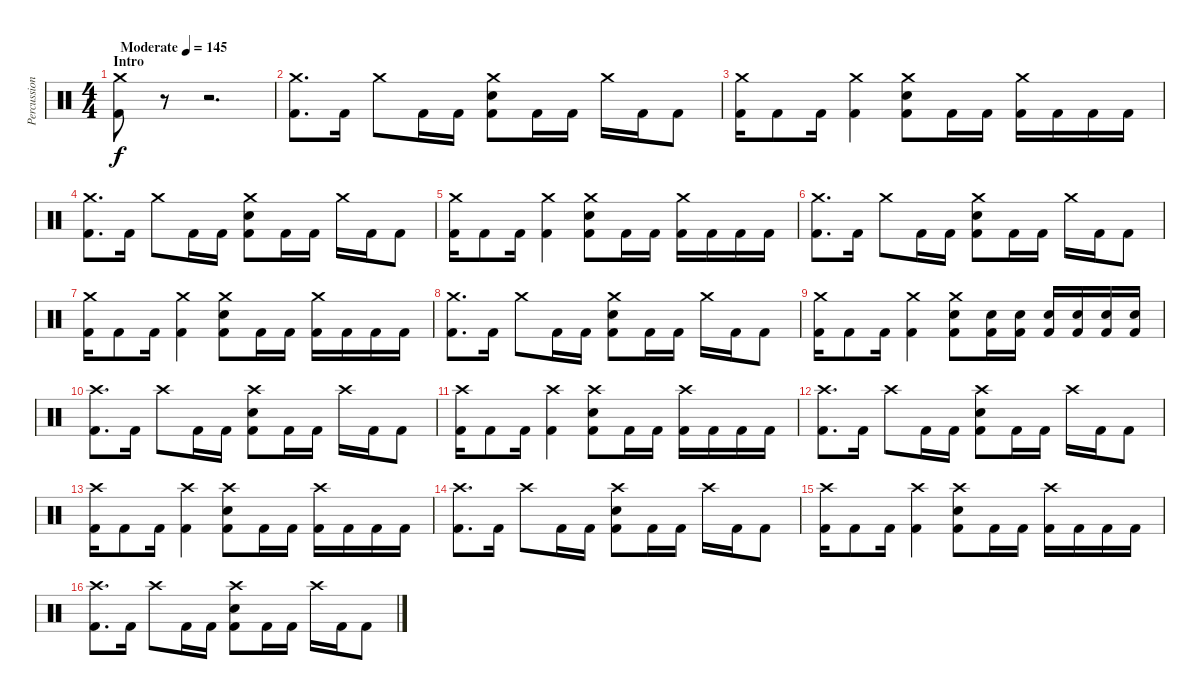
\track ("Percussion" "Percussion") {instrument percussion}
\staff {score}
\articulation defaults
\ts (4 4)
\section ("" "Intro")
\tempo (145 "Moderate")
\clef neutral
\ks c
("Crash medium (hit)" "Kick (hit) 2").8{dy f} r.8{volume 0} r.2{d} |
("Crash medium (hit)" "Kick (hit) 2").8{d volume 13} "Kick (hit) 2".16 "Crash medium (hit)".8 "Kick (hit) 2".16 "Kick (hit) 2".16 ("Crash medium (hit)" "Electric Snare (hit)" "Kick (hit) 2").8 "Kick (hit) 2".16 "Kick (hit) 2".16 "Crash medium (hit)".16 "Kick (hit) 2".16 "Kick (hit) 2".8 |
("Crash medium (hit)" "Kick (hit) 2").16 "Kick (hit) 2".8 "Kick (hit) 2".16 ("Crash medium (hit)" "Kick (hit) 2").4 ("Crash medium (hit)" "Electric Snare (hit)" "Kick (hit) 2").8 "Kick (hit) 2".16 "Kick (hit) 2".16 ("Crash medium (hit)" "Kick (hit) 2").16 "Kick (hit) 2".16 "Kick (hit) 2".16 "Kick (hit) 2".16 |
("Crash medium (hit)" "Kick (hit) 2").8{d} "Kick (hit) 2".16 "Crash medium (hit)".8 "Kick (hit) 2".16 "Kick (hit) 2".16 ("Crash medium (hit)" "Electric Snare (hit)" "Kick (hit) 2").8 "Kick (hit) 2".16 "Kick (hit) 2".16 "Crash medium (hit)".16 "Kick (hit) 2".16 "Kick (hit) 2".8 |
("Crash medium (hit)" "Kick (hit) 2").16 "Kick (hit) 2".8 "Kick (hit) 2".16 ("Crash medium (hit)" "Kick (hit) 2").4 ("Crash medium (hit)" "Electric Snare (hit)" "Kick (hit) 2").8 "Kick (hit) 2".16 "Kick (hit) 2".16 ("Crash medium (hit)" "Kick (hit) 2").16 "Kick (hit) 2".16 "Kick (hit) 2".16 "Kick (hit) 2".16 |
("Crash medium (hit)" "Kick (hit) 2").8{d} "Kick (hit) 2".16 "Crash medium (hit)".8 "Kick (hit) 2".16 "Kick (hit) 2".16 ("Crash medium (hit)" "Electric Snare (hit)" "Kick (hit) 2").8 "Kick (hit) 2".16 "Kick (hit) 2".16 "Crash medium (hit)".16 "Kick (hit) 2".16 "Kick (hit) 2".8 |
("Crash medium (hit)" "Kick (hit) 2").16 "Kick (hit) 2".8 "Kick (hit) 2".16 ("Crash medium (hit)" "Kick (hit) 2").4 ("Crash medium (hit)" "Electric Snare (hit)" "Kick (hit) 2").8 "Kick (hit) 2".16 "Kick (hit) 2".16 ("Crash medium (hit)" "Kick (hit) 2").16 "Kick (hit) 2".16 "Kick (hit) 2".16 "Kick (hit) 2".16 |
("Crash medium (hit)" "Kick (hit) 2").8{d} "Kick (hit) 2".16 "Crash medium (hit)".8 "Kick (hit) 2".16 "Kick (hit) 2".16 ("Crash medium (hit)" "Electric Snare (hit)" "Kick (hit) 2").8 "Kick (hit) 2".16 "Kick (hit) 2".16 "Crash medium (hit)".16 "Kick (hit) 2".16 "Kick (hit) 2".8 |
("Crash medium (hit)" "Kick (hit) 2").16 "Kick (hit) 2".8 "Kick (hit) 2".16 ("Crash medium (hit)" "Kick (hit) 2").4 ("Crash medium (hit)" "Electric Snare (hit)" "Kick (hit) 2").8 ("Electric Snare (hit)" "Kick (hit) 2").16 ("Electric Snare (hit)" "Kick (hit) 2").16 ("Electric Snare (hit)" "Kick (hit) 2").16 ("Electric Snare (hit)" "Kick (hit) 2").16 ("Electric Snare (hit)" "Kick (hit) 2").16 ("Electric Snare (hit)" "Kick (hit) 2").16 |
("Crash high (hit)" "Kick (hit) 2").8{d} "Kick (hit) 2".16 "Crash high (hit)".8 "Kick (hit) 2".16 "Kick (hit) 2".16 ("Crash high (hit)" "Electric Snare (hit)" "Kick (hit) 2").8 "Kick (hit) 2".16 "Kick (hit) 2".16 "Crash high (hit)".16 "Kick (hit) 2".16 "Kick (hit) 2".8 |
("Crash high (hit)" "Kick (hit) 2").16 "Kick (hit) 2".8 "Kick (hit) 2".16 ("Crash high (hit)" "Kick (hit) 2").4 ("Crash high (hit)" "Electric Snare (hit)" "Kick (hit) 2").8 "Kick (hit) 2".16 "Kick (hit) 2".16 ("Crash high (hit)" "Kick (hit) 2").16 "Kick (hit) 2".16 "Kick (hit) 2".16 "Kick (hit) 2".16 |
("Crash high (hit)" "Kick (hit) 2").8{d} "Kick (hit) 2".16 "Crash high (hit)".8 "Kick (hit) 2".16 "Kick (hit) 2".16 ("Crash high (hit)" "Electric Snare (hit)" "Kick (hit) 2").8 "Kick (hit) 2".16 "Kick (hit) 2".16 "Crash high (hit)".16 "Kick (hit) 2".16 "Kick (hit) 2".8 |
("Crash high (hit)" "Kick (hit) 2").16 "Kick (hit) 2".8 "Kick (hit) 2".16 ("Crash high (hit)" "Kick (hit) 2").4 ("Crash high (hit)" "Electric Snare (hit)" "Kick (hit) 2").8 "Kick (hit) 2".16 "Kick (hit) 2".16 ("Crash high (hit)" "Kick (hit) 2").16 "Kick (hit) 2".16 "Kick (hit) 2".16 "Kick (hit) 2".16 |
("Crash high (hit)" "Kick (hit) 2").8{d} "Kick (hit) 2".16 "Crash high (hit)".8 "Kick (hit) 2".16 "Kick (hit) 2".16 ("Crash high (hit)" "Electric Snare (hit)" "Kick (hit) 2").8 "Kick (hit) 2".16 "Kick (hit) 2".16 "Crash high (hit)".16 "Kick (hit) 2".16 "Kick (hit) 2".8 |
("Crash high (hit)" "Kick (hit) 2").16 "Kick (hit) 2".8 "Kick (hit) 2".16 ("Crash high (hit)" "Kick (hit) 2").4 ("Crash high (hit)" "Electric Snare (hit)" "Kick (hit) 2").8 "Kick (hit) 2".16 "Kick (hit) 2".16 ("Crash high (hit)" "Kick (hit) 2").16 "Kick (hit) 2".16 "Kick (hit) 2".16 "Kick (hit) 2".16 |
("Crash high (hit)" "Kick (hit) 2").8{d} "Kick (hit) 2".16 "Crash high (hit)".8 "Kick (hit) 2".16 "Kick (hit) 2".16 ("Crash high (hit)" "Electric Snare (hit)" "Kick (hit) 2").8 "Kick (hit) 2".16 "Kick (hit) 2".16 "Crash high (hit)".16 "Kick (hit) 2".16 "Kick (hit) 2".8
